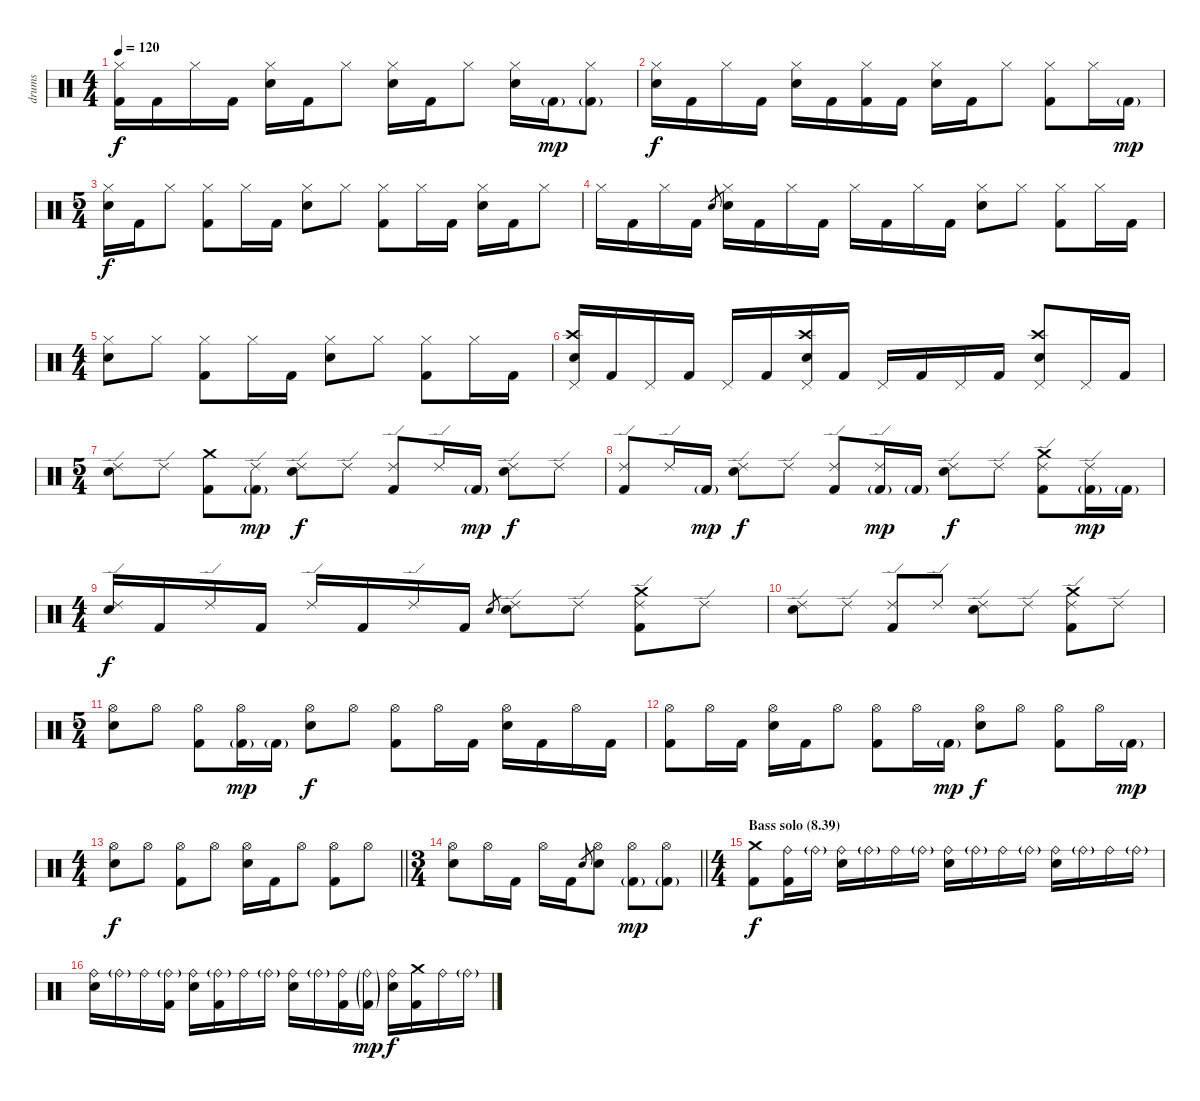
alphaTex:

\track ("drums" "drums") {instrument percussion}
\staff {score}
\articulation defaults
\ts (4 4)
\tempo 120
\clef neutral
\ks c
("Hi-Hat (closed)" "Kick (hit) 2").16{dy f} "Kick (hit) 2".16 "Hi-Hat (closed)".16 "Kick (hit) 2".16 ("Hi-Hat (closed)" "Electric Snare (hit)").16 "Kick (hit) 2".16 "Hi-Hat (closed)".8 ("Hi-Hat (closed)" "Electric Snare (hit)").16 "Kick (hit) 2".16 "Hi-Hat (closed)".8 ("Hi-Hat (closed)" "Electric Snare (hit)").16 "Kick (hit) 2"{g}.16{dy mp} ("Hi-Hat (closed)" "Kick (hit) 2"{g}).8 |
("Hi-Hat (closed)" "Electric Snare (hit)").16{dy f} "Kick (hit) 2".16 "Hi-Hat (closed)".16 "Kick (hit) 2".16 ("Hi-Hat (closed)" "Electric Snare (hit)").16 "Kick (hit) 2".16 ("Hi-Hat (closed)" "Kick (hit) 2").16 "Kick (hit) 2".16 ("Hi-Hat (closed)" "Electric Snare (hit)").16 "Kick (hit) 2".16 "Hi-Hat (closed)".8 ("Hi-Hat (closed)" "Kick (hit) 2").8 "Hi-Hat (closed)".16 "Kick (hit) 2"{g}.16{dy mp} |
\ts (5 4)
("Hi-Hat (closed)" "Electric Snare (hit)").16{dy f} "Kick (hit) 2".16 "Hi-Hat (closed)".8 ("Hi-Hat (closed)" "Kick (hit) 2").8 "Hi-Hat (closed)".16 "Kick (hit) 2".16 ("Hi-Hat (closed)" "Electric Snare (hit)").8 "Hi-Hat (closed)".8 ("Hi-Hat (closed)" "Kick (hit) 2").8 "Hi-Hat (closed)".16 "Kick (hit) 2".16 ("Hi-Hat (closed)" "Electric Snare (hit)").16 "Kick (hit) 2".16 "Hi-Hat (closed)".8 |
"Hi-Hat (closed)".16 "Kick (hit) 2".16 "Hi-Hat (closed)".16 "Kick (hit) 2".16 "Electric Snare (hit)".8{gr} ("Hi-Hat (closed)" "Electric Snare (hit)").16 "Kick (hit) 2".16 "Hi-Hat (closed)".16 "Kick (hit) 2".16 "Hi-Hat (closed)".16 "Kick (hit) 2".16 "Hi-Hat (closed)".16 "Kick (hit) 2".16 ("Hi-Hat (closed)" "Electric Snare (hit)").8 "Hi-Hat (closed)".8 ("Hi-Hat (closed)" "Kick (hit) 2").8 "Hi-Hat (closed)".16 "Kick (hit) 2".16 |
\ts (4 4)
("Hi-Hat (closed)" "Electric Snare (hit)").8 "Hi-Hat (closed)".8 ("Hi-Hat (closed)" "Kick (hit) 2").8 "Hi-Hat (closed)".16 "Kick (hit) 2".16 ("Hi-Hat (closed)" "Electric Snare (hit)").8 "Hi-Hat (closed)".8 ("Hi-Hat (closed)" "Kick (hit) 2").8 "Hi-Hat (closed)".16 "Kick (hit) 2".16 |
("Crash high (hit)" "Pedal Hi-Hat (hit)" "Electric Snare (hit)").16 "Kick (hit) 2".16 "Pedal Hi-Hat (hit)".16 "Kick (hit) 2".16 "Pedal Hi-Hat (hit)".16 "Kick (hit) 2".16 ("Crash high (hit)" "Pedal Hi-Hat (hit)" "Electric Snare (hit)").16 "Kick (hit) 2".16 "Pedal Hi-Hat (hit)".16 "Kick (hit) 2".16 "Pedal Hi-Hat (hit)".16 "Kick (hit) 2".16 ("Crash high (hit)" "Pedal Hi-Hat (hit)" "Electric Snare (hit)").8 "Pedal Hi-Hat (hit)".16 "Kick (hit) 2".16 |
\ts (5 4)
("Ride (edge) 2" "Electric Snare (hit)").8 "Ride (edge) 2".8 ("Crash medium (hit)" "Kick (hit) 2").8 ("Ride (edge) 2" "Kick (hit) 2"{g}).8{dy mp} ("Ride (edge) 2" "Electric Snare (hit)").8{dy f} "Ride (edge) 2".8 ("Ride (edge) 2" "Kick (hit) 2").8 "Ride (edge) 2".16 "Kick (hit) 2"{g}.16{dy mp} ("Ride (edge) 2" "Electric Snare (hit)").8{dy f} "Ride (edge) 2".8 |
("Ride (edge) 2" "Kick (hit) 2").8 "Ride (edge) 2".16 "Kick (hit) 2"{g}.16{dy mp} ("Ride (edge) 2" "Electric Snare (hit)").8{dy f} "Ride (edge) 2".8 ("Ride (edge) 2" "Kick (hit) 2").8 ("Ride (edge) 2" "Kick (hit) 2"{g}).16{dy mp} "Kick (hit) 2"{g}.16 ("Ride (edge) 2" "Electric Snare (hit)").8{dy f} "Ride (edge) 2".8 ("Ride (edge) 2" "Crash medium (hit)" "Kick (hit) 2").8 ("Ride (edge) 2" "Kick (hit) 2"{g}).16{dy mp} "Kick (hit) 2"{g}.16 |
\ts (4 4)
("Ride (edge) 2" "Electric Snare (hit)").16{dy f} "Kick (hit) 2".16 "Ride (edge) 2".16 "Kick (hit) 2".16 "Ride (edge) 2".16 "Kick (hit) 2".16 "Ride (edge) 2".16 "Kick (hit) 2".16 "Electric Snare (hit)".8{gr} ("Ride (edge) 2" "Electric Snare (hit)").8 "Ride (edge) 2".8 ("Ride (edge) 2" "Crash medium (hit)" "Kick (hit) 2").8 "Ride (edge) 2".8 |
("Ride (edge) 2" "Electric Snare (hit)").8 "Ride (edge) 2".8 ("Ride (edge) 2" "Kick (hit) 2").8 "Ride (edge) 2".8 ("Ride (edge) 2" "Electric Snare (hit)").8 "Ride (edge) 2".8 ("Ride (edge) 2" "Crash medium (hit)" "Kick (hit) 2").8 "Ride (edge) 2".8 |
\ts (5 4)
("Hi-Hat (open)" "Electric Snare (hit)").8 "Hi-Hat (open)".8 ("Hi-Hat (open)" "Kick (hit) 2").8 ("Hi-Hat (open)" "Kick (hit) 2"{g}).16{dy mp} "Kick (hit) 2"{g}.16 ("Hi-Hat (open)" "Electric Snare (hit)").8{dy f} "Hi-Hat (open)".8 ("Hi-Hat (open)" "Kick (hit) 2").8 "Hi-Hat (open)".16 "Kick (hit) 2".16 ("Hi-Hat (open)" "Electric Snare (hit)").16 "Kick (hit) 2".16 "Hi-Hat (open)".16 "Kick (hit) 2".16 |
("Hi-Hat (open)" "Kick (hit) 2").8 "Hi-Hat (open)".16 "Kick (hit) 2".16 ("Hi-Hat (open)" "Electric Snare (hit)").16 "Kick (hit) 2".16 "Hi-Hat (open)".8 ("Hi-Hat (open)" "Kick (hit) 2").8 "Hi-Hat (open)".16 "Kick (hit) 2"{g}.16{dy mp} ("Hi-Hat (open)" "Electric Snare (hit)").8{dy f} "Hi-Hat (open)".8 ("Hi-Hat (open)" "Kick (hit) 2").8 "Hi-Hat (open)".16 "Kick (hit) 2"{g}.16{dy mp} |
\ts (4 4)
\barLineRight lightlight
("Hi-Hat (open)" "Electric Snare (hit)").8{dy f} "Hi-Hat (open)".8 ("Hi-Hat (open)" "Kick (hit) 2").8 "Hi-Hat (open)".8 ("Hi-Hat (open)" "Electric Snare (hit)").16 "Kick (hit) 2".16 "Hi-Hat (open)".8 ("Hi-Hat (open)" "Kick (hit) 2").8 "Hi-Hat (open)".8 |
\ts (3 4)
\barLineRight lightlight
("Hi-Hat (open)" "Electric Snare (hit)").8 "Hi-Hat (open)".16 "Kick (hit) 2".16 "Hi-Hat (open)".16 "Kick (hit) 2".16 "Electric Snare (hit)".8{gr} ("Hi-Hat (open)" "Electric Snare (hit)").8 ("Hi-Hat (open)" "Kick (hit) 2"{g}).8{dy mp} ("Hi-Hat (open)" "Kick (hit) 2"{g}).8 |
\ts (4 4)
\section ("" "Bass solo (8.39)")
("Crash medium (hit)" "Kick (hit) 2").8{dy f} ("Ride (bell)" "Kick (hit) 2").16 "Ride (bell)"{g}.16 ("Ride (bell)" "Electric Snare (hit)").16 "Ride (bell)"{g}.16 "Ride (bell)".16 "Ride (bell)"{g}.16 ("Ride (bell)" "Electric Snare (hit)").16 "Ride (bell)"{g}.16 "Ride (bell)".16 "Ride (bell)"{g}.16 ("Ride (bell)" "Electric Snare (hit)").16 "Ride (bell)"{g}.16 "Ride (bell)".16 "Ride (bell)"{g}.16 |
("Ride (bell)" "Electric Snare (hit)").16 "Ride (bell)"{g}.16 "Ride (bell)".16 ("Ride (bell)"{g} "Kick (hit) 2").16 ("Ride (bell)" "Electric Snare (hit)").16 ("Ride (bell)"{g} "Kick (hit) 2").16 "Ride (bell)".16 "Ride (bell)"{g}.16 ("Ride (bell)" "Electric Snare (hit)").16 "Ride (bell)"{g}.16 ("Ride (bell)" "Kick (hit) 2").16 ("Ride (bell)"{g} "Kick (hit) 2"{g}).16{dy mp} ("Ride (bell)" "Electric Snare (hit)").16{dy f} ("Crash medium (hit)" "Kick (hit) 2").16 "Ride (bell)".16 "Ride (bell)"{g}.16
